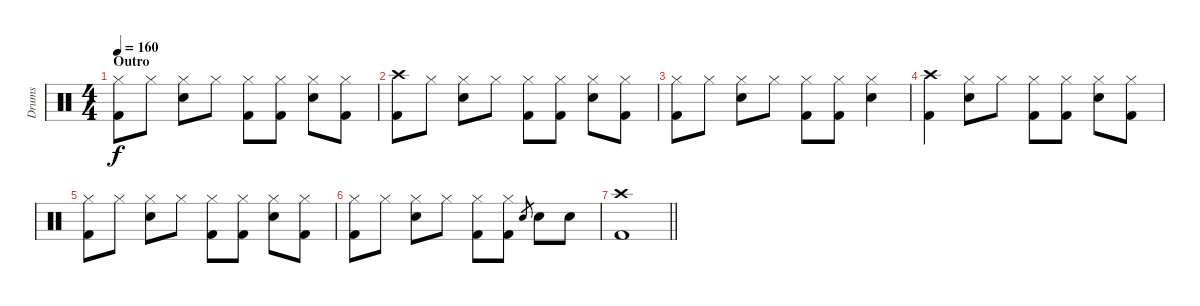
\track ("Drums" "Drums") {instrument percussion}
\staff {score}
\articulation defaults
\ts (4 4)
\section ("" "Outro")
\tempo 160
\clef neutral
\ks c
("Hi-Hat (closed)" "Kick (hit) 2").8{dy f} "Hi-Hat (closed)".8 ("Hi-Hat (closed)" "Electric Snare (hit)").8 "Hi-Hat (closed)".8 ("Hi-Hat (closed)" "Kick (hit) 2").8 ("Hi-Hat (closed)" "Kick (hit) 2").8 ("Hi-Hat (closed)" "Electric Snare (hit)").8 ("Hi-Hat (closed)" "Kick (hit) 2").8 |
("Crash high (hit)" "Kick (hit) 2").8 "Hi-Hat (closed)".8 ("Hi-Hat (closed)" "Electric Snare (hit)").8 "Hi-Hat (closed)".8 ("Hi-Hat (closed)" "Kick (hit) 2").8 ("Hi-Hat (closed)" "Kick (hit) 2").8 ("Hi-Hat (closed)" "Electric Snare (hit)").8 ("Hi-Hat (closed)" "Kick (hit) 2").8 |
("Hi-Hat (closed)" "Kick (hit) 2").8 "Hi-Hat (closed)".8 ("Hi-Hat (closed)" "Electric Snare (hit)").8 "Hi-Hat (closed)".8 ("Hi-Hat (closed)" "Kick (hit) 2").8 ("Hi-Hat (closed)" "Kick (hit) 2").8 ("Hi-Hat (closed)" "Electric Snare (hit)").4 |
("Crash high (hit)" "Kick (hit) 2").4 ("Hi-Hat (closed)" "Electric Snare (hit)").8 "Hi-Hat (closed)".8 ("Hi-Hat (closed)" "Kick (hit) 2").8 ("Hi-Hat (closed)" "Kick (hit) 2").8 ("Hi-Hat (closed)" "Electric Snare (hit)").8 ("Hi-Hat (closed)" "Kick (hit) 2").8 |
("Hi-Hat (closed)" "Kick (hit) 2").8 "Hi-Hat (closed)".8 ("Hi-Hat (closed)" "Electric Snare (hit)").8 "Hi-Hat (closed)".8 ("Hi-Hat (closed)" "Kick (hit) 2").8 ("Hi-Hat (closed)" "Kick (hit) 2").8 ("Hi-Hat (closed)" "Electric Snare (hit)").8 ("Hi-Hat (closed)" "Kick (hit) 2").8 |
("Hi-Hat (closed)" "Kick (hit) 2").8 "Hi-Hat (closed)".8 ("Hi-Hat (closed)" "Electric Snare (hit)").8 "Hi-Hat (closed)".8 ("Hi-Hat (closed)" "Kick (hit) 2").8 ("Hi-Hat (closed)" "Kick (hit) 2").8 "Electric Snare (hit)".8{gr} "Electric Snare (hit)".8 "Electric Snare (hit)".8 |
\barLineRight lightlight
("Crash high (hit)" "Kick (hit) 2").1
